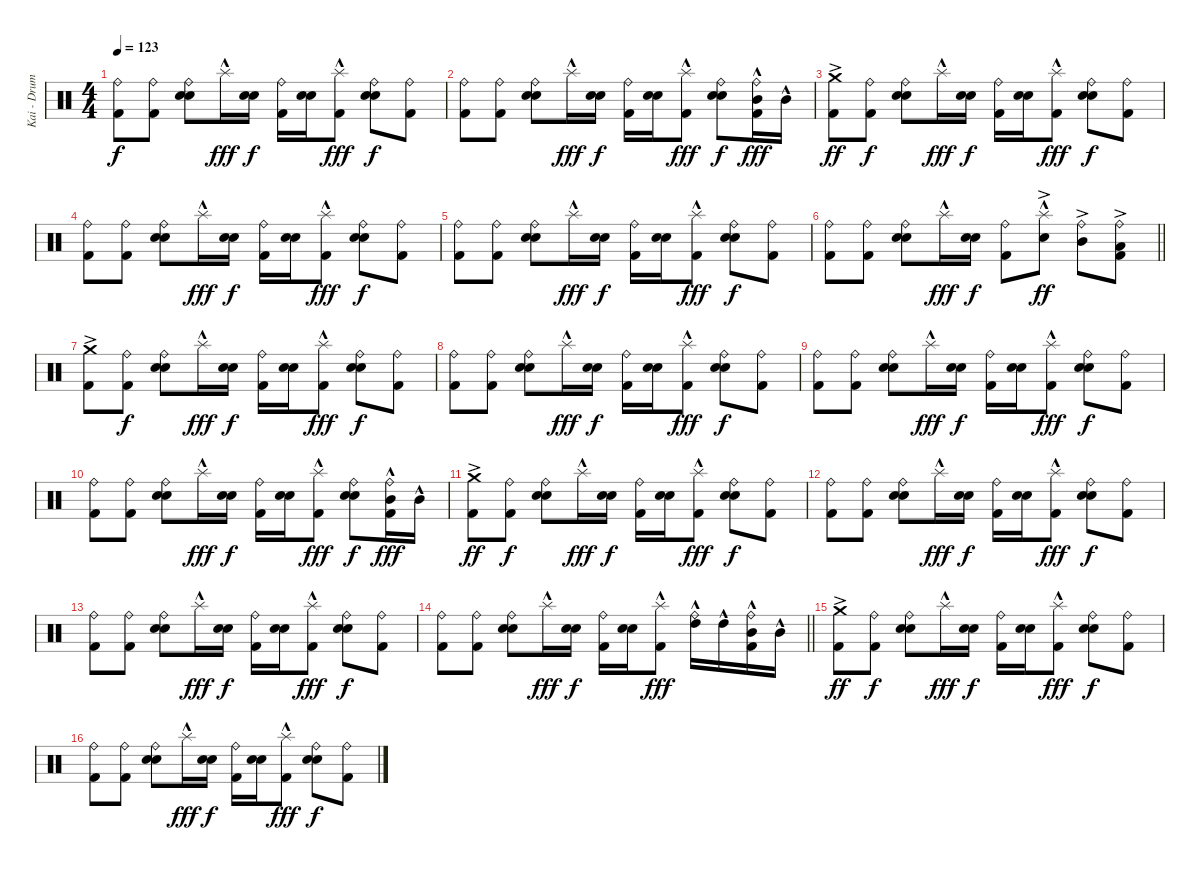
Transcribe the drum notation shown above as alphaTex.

\track ("Kai - Drums" "Kai - Drum") {instrument percussion}
\staff {score}
\articulation defaults
\ts (4 4)
\tempo 123
\clef neutral
\ks c
("Ride (bell)" "Kick (hit) 2").8{dy f} ("Ride (bell)" "Kick (hit) 2").8 ("Ride (bell)" "Electric Snare (hit)" "Snare (hit) 2").8 "Splash (hit)"{hac}.16{dy fff} ("Electric Snare (hit)" "Snare (hit) 2").16{dy f} ("Ride (bell)" "Kick (hit) 2").16 ("Electric Snare (hit)" "Snare (hit) 2").16 ("Splash (hit)"{hac} "Kick (hit) 2").8{dy fff} ("Ride (bell)" "Electric Snare (hit)" "Snare (hit) 2").8{dy f} ("Ride (bell)" "Kick (hit) 2").8 |
("Ride (bell)" "Kick (hit) 2").8 ("Ride (bell)" "Kick (hit) 2").8 ("Ride (bell)" "Electric Snare (hit)" "Snare (hit) 2").8 "Splash (hit)"{hac}.16{dy fff} ("Electric Snare (hit)" "Snare (hit) 2").16{dy f} ("Ride (bell)" "Kick (hit) 2").16 ("Electric Snare (hit)" "Snare (hit) 2").16 ("Splash (hit)"{hac} "Kick (hit) 2").8{dy fff} ("Ride (bell)" "Electric Snare (hit)" "Snare (hit) 2").8{dy f} ("Ride (bell)" "Mid Tom (hit)"{hac} "Kick (hit) 2").16{dy fff} "Mid Tom (hit)"{hac}.16 |
("Crash medium (hit)"{ac} "Kick (hit) 2").8{dy ff} ("Ride (bell)" "Kick (hit) 2").8{dy f} ("Ride (bell)" "Electric Snare (hit)" "Snare (hit) 2").8 "Splash (hit)"{hac}.16{dy fff} ("Electric Snare (hit)" "Snare (hit) 2").16{dy f} ("Ride (bell)" "Kick (hit) 2").16 ("Electric Snare (hit)" "Snare (hit) 2").16 ("Splash (hit)"{hac} "Kick (hit) 2").8{dy fff} ("Ride (bell)" "Electric Snare (hit)" "Snare (hit) 2").8{dy f} ("Ride (bell)" "Kick (hit) 2").8 |
("Ride (bell)" "Kick (hit) 2").8 ("Ride (bell)" "Kick (hit) 2").8 ("Ride (bell)" "Electric Snare (hit)" "Snare (hit) 2").8 "Splash (hit)"{hac}.16{dy fff} ("Electric Snare (hit)" "Snare (hit) 2").16{dy f} ("Ride (bell)" "Kick (hit) 2").16 ("Electric Snare (hit)" "Snare (hit) 2").16 ("Splash (hit)"{hac} "Kick (hit) 2").8{dy fff} ("Ride (bell)" "Electric Snare (hit)" "Snare (hit) 2").8{dy f} ("Ride (bell)" "Kick (hit) 2").8 |
("Ride (bell)" "Kick (hit) 2").8 ("Ride (bell)" "Kick (hit) 2").8 ("Ride (bell)" "Electric Snare (hit)" "Snare (hit) 2").8 "Splash (hit)"{hac}.16{dy fff} ("Electric Snare (hit)" "Snare (hit) 2").16{dy f} ("Ride (bell)" "Kick (hit) 2").16 ("Electric Snare (hit)" "Snare (hit) 2").16 ("Splash (hit)"{hac} "Kick (hit) 2").8{dy fff} ("Ride (bell)" "Electric Snare (hit)" "Snare (hit) 2").8{dy f} ("Ride (bell)" "Kick (hit) 2").8 |
\barLineRight lightlight
("Ride (bell)" "Kick (hit) 2").8 ("Ride (bell)" "Kick (hit) 2").8 ("Ride (bell)" "Electric Snare (hit)" "Snare (hit) 2").8 "Splash (hit)"{hac}.16{dy fff} ("Electric Snare (hit)" "Snare (hit) 2").16{dy f} ("Ride (bell)" "Kick (hit) 2").8 ("Splash (hit)"{hac} "Electric Snare (hit)"{ac}).8{dy ff} ("Ride (bell)" "Mid Tom (hit)"{ac}).8 ("Ride (bell)" "Low Tom (hit)"{ac} "Kick (hit) 2").8 |
\section ("" "")
("Crash medium (hit)"{ac} "Kick (hit) 2").8 ("Ride (bell)" "Kick (hit) 2").8{dy f} ("Ride (bell)" "Electric Snare (hit)" "Snare (hit) 2").8 "Splash (hit)"{hac}.16{dy fff} ("Electric Snare (hit)" "Snare (hit) 2").16{dy f} ("Ride (bell)" "Kick (hit) 2").16 ("Electric Snare (hit)" "Snare (hit) 2").16 ("Splash (hit)"{hac} "Kick (hit) 2").8{dy fff} ("Ride (bell)" "Electric Snare (hit)" "Snare (hit) 2").8{dy f} ("Ride (bell)" "Kick (hit) 2").8 |
("Ride (bell)" "Kick (hit) 2").8 ("Ride (bell)" "Kick (hit) 2").8 ("Ride (bell)" "Electric Snare (hit)" "Snare (hit) 2").8 "Splash (hit)"{hac}.16{dy fff} ("Electric Snare (hit)" "Snare (hit) 2").16{dy f} ("Ride (bell)" "Kick (hit) 2").16 ("Electric Snare (hit)" "Snare (hit) 2").16 ("Splash (hit)"{hac} "Kick (hit) 2").8{dy fff} ("Ride (bell)" "Electric Snare (hit)" "Snare (hit) 2").8{dy f} ("Ride (bell)" "Kick (hit) 2").8 |
("Ride (bell)" "Kick (hit) 2").8 ("Ride (bell)" "Kick (hit) 2").8 ("Ride (bell)" "Electric Snare (hit)" "Snare (hit) 2").8 "Splash (hit)"{hac}.16{dy fff} ("Electric Snare (hit)" "Snare (hit) 2").16{dy f} ("Ride (bell)" "Kick (hit) 2").16 ("Electric Snare (hit)" "Snare (hit) 2").16 ("Splash (hit)"{hac} "Kick (hit) 2").8{dy fff} ("Ride (bell)" "Electric Snare (hit)" "Snare (hit) 2").8{dy f} ("Ride (bell)" "Kick (hit) 2").8 |
("Ride (bell)" "Kick (hit) 2").8 ("Ride (bell)" "Kick (hit) 2").8 ("Ride (bell)" "Electric Snare (hit)" "Snare (hit) 2").8 "Splash (hit)"{hac}.16{dy fff} ("Electric Snare (hit)" "Snare (hit) 2").16{dy f} ("Ride (bell)" "Kick (hit) 2").16 ("Electric Snare (hit)" "Snare (hit) 2").16 ("Splash (hit)"{hac} "Kick (hit) 2").8{dy fff} ("Ride (bell)" "Electric Snare (hit)" "Snare (hit) 2").8{dy f} ("Ride (bell)" "Mid Tom (hit)"{hac} "Kick (hit) 2").16{dy fff} "Mid Tom (hit)"{hac}.16 |
("Crash medium (hit)"{ac} "Kick (hit) 2").8{dy ff} ("Ride (bell)" "Kick (hit) 2").8{dy f} ("Ride (bell)" "Electric Snare (hit)" "Snare (hit) 2").8 "Splash (hit)"{hac}.16{dy fff} ("Electric Snare (hit)" "Snare (hit) 2").16{dy f} ("Ride (bell)" "Kick (hit) 2").16 ("Electric Snare (hit)" "Snare (hit) 2").16 ("Splash (hit)"{hac} "Kick (hit) 2").8{dy fff} ("Ride (bell)" "Electric Snare (hit)" "Snare (hit) 2").8{dy f} ("Ride (bell)" "Kick (hit) 2").8 |
("Ride (bell)" "Kick (hit) 2").8 ("Ride (bell)" "Kick (hit) 2").8 ("Ride (bell)" "Electric Snare (hit)" "Snare (hit) 2").8 "Splash (hit)"{hac}.16{dy fff} ("Electric Snare (hit)" "Snare (hit) 2").16{dy f} ("Ride (bell)" "Kick (hit) 2").16 ("Electric Snare (hit)" "Snare (hit) 2").16 ("Splash (hit)"{hac} "Kick (hit) 2").8{dy fff} ("Ride (bell)" "Electric Snare (hit)" "Snare (hit) 2").8{dy f} ("Ride (bell)" "Kick (hit) 2").8 |
("Ride (bell)" "Kick (hit) 2").8 ("Ride (bell)" "Kick (hit) 2").8 ("Ride (bell)" "Electric Snare (hit)" "Snare (hit) 2").8 "Splash (hit)"{hac}.16{dy fff} ("Electric Snare (hit)" "Snare (hit) 2").16{dy f} ("Ride (bell)" "Kick (hit) 2").16 ("Electric Snare (hit)" "Snare (hit) 2").16 ("Splash (hit)"{hac} "Kick (hit) 2").8{dy fff} ("Ride (bell)" "Electric Snare (hit)" "Snare (hit) 2").8{dy f} ("Ride (bell)" "Kick (hit) 2").8 |
\barLineRight lightlight
("Ride (bell)" "Kick (hit) 2").8 ("Ride (bell)" "Kick (hit) 2").8 ("Ride (bell)" "Electric Snare (hit)" "Snare (hit) 2").8 "Splash (hit)"{hac}.16{dy fff} ("Electric Snare (hit)" "Snare (hit) 2").16{dy f} ("Ride (bell)" "Kick (hit) 2").16 ("Electric Snare (hit)" "Snare (hit) 2").16 ("Splash (hit)"{hac} "Kick (hit) 2").8{dy fff} ("Ride (bell)" "High Tom (hit)"{hac}).16 "High Tom (hit)"{hac}.16 ("Ride (bell)" "Mid Tom (hit)"{hac} "Kick (hit) 2").16 "Mid Tom (hit)"{hac}.16 |
\section ("" "")
("Crash medium (hit)"{ac} "Kick (hit) 2").8{dy ff} ("Ride (bell)" "Kick (hit) 2").8{dy f} ("Ride (bell)" "Electric Snare (hit)" "Snare (hit) 2").8 "Splash (hit)"{hac}.16{dy fff} ("Electric Snare (hit)" "Snare (hit) 2").16{dy f} ("Ride (bell)" "Kick (hit) 2").16 ("Electric Snare (hit)" "Snare (hit) 2").16 ("Splash (hit)"{hac} "Kick (hit) 2").8{dy fff} ("Ride (bell)" "Electric Snare (hit)" "Snare (hit) 2").8{dy f} ("Ride (bell)" "Kick (hit) 2").8 |
("Ride (bell)" "Kick (hit) 2").8 ("Ride (bell)" "Kick (hit) 2").8 ("Ride (bell)" "Electric Snare (hit)" "Snare (hit) 2").8 "Splash (hit)"{hac}.16{dy fff} ("Electric Snare (hit)" "Snare (hit) 2").16{dy f} ("Ride (bell)" "Kick (hit) 2").16 ("Electric Snare (hit)" "Snare (hit) 2").16 ("Splash (hit)"{hac} "Kick (hit) 2").8{dy fff} ("Ride (bell)" "Electric Snare (hit)" "Snare (hit) 2").8{dy f} ("Ride (bell)" "Kick (hit) 2").8
